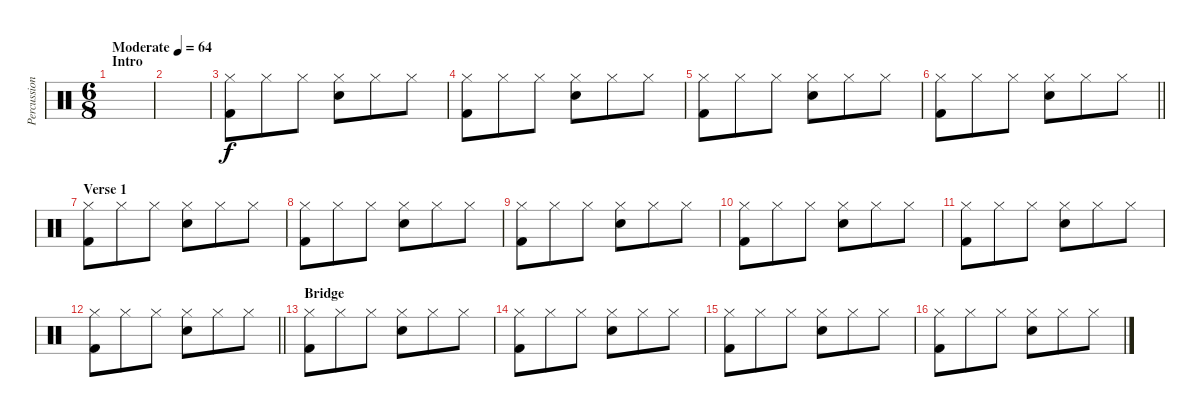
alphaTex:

\track ("Percussion" "Percussion") {instrument percussion}
\staff {score}
\articulation defaults
\ts (6 8)
\section ("" "Intro")
\tempo (64 "Moderate")
\clef neutral
\ks c
|
|
("Hi-Hat (closed)" "Kick (hit) 2").8 "Hi-Hat (closed)".8 "Hi-Hat (closed)".8 ("Hi-Hat (closed)" "Electric Snare (hit)").8 "Hi-Hat (closed)".8 "Hi-Hat (closed)".8 |
("Hi-Hat (closed)" "Kick (hit) 2").8 "Hi-Hat (closed)".8 "Hi-Hat (closed)".8 ("Hi-Hat (closed)" "Electric Snare (hit)").8 "Hi-Hat (closed)".8 "Hi-Hat (closed)".8 |
("Hi-Hat (closed)" "Kick (hit) 2").8 "Hi-Hat (closed)".8 "Hi-Hat (closed)".8 ("Hi-Hat (closed)" "Electric Snare (hit)").8 "Hi-Hat (closed)".8 "Hi-Hat (closed)".8 |
\barLineRight lightlight
("Hi-Hat (closed)" "Kick (hit) 2").8 "Hi-Hat (closed)".8 "Hi-Hat (closed)".8 ("Hi-Hat (closed)" "Electric Snare (hit)").8 "Hi-Hat (closed)".8 "Hi-Hat (closed)".8 |
\section ("" "Verse 1")
("Hi-Hat (closed)" "Kick (hit) 2").8 "Hi-Hat (closed)".8 "Hi-Hat (closed)".8 ("Hi-Hat (closed)" "Electric Snare (hit)").8 "Hi-Hat (closed)".8 "Hi-Hat (closed)".8 |
("Hi-Hat (closed)" "Kick (hit) 2").8 "Hi-Hat (closed)".8 "Hi-Hat (closed)".8 ("Hi-Hat (closed)" "Electric Snare (hit)").8 "Hi-Hat (closed)".8 "Hi-Hat (closed)".8 |
("Hi-Hat (closed)" "Kick (hit) 2").8 "Hi-Hat (closed)".8 "Hi-Hat (closed)".8 ("Hi-Hat (closed)" "Electric Snare (hit)").8 "Hi-Hat (closed)".8 "Hi-Hat (closed)".8 |
("Hi-Hat (closed)" "Kick (hit) 2").8 "Hi-Hat (closed)".8 "Hi-Hat (closed)".8 ("Hi-Hat (closed)" "Electric Snare (hit)").8 "Hi-Hat (closed)".8 "Hi-Hat (closed)".8 |
("Hi-Hat (closed)" "Kick (hit) 2").8 "Hi-Hat (closed)".8 "Hi-Hat (closed)".8 ("Hi-Hat (closed)" "Electric Snare (hit)").8 "Hi-Hat (closed)".8 "Hi-Hat (closed)".8 |
\barLineRight lightlight
("Hi-Hat (closed)" "Kick (hit) 2").8 "Hi-Hat (closed)".8 "Hi-Hat (closed)".8 ("Hi-Hat (closed)" "Electric Snare (hit)").8 "Hi-Hat (closed)".8 "Hi-Hat (closed)".8 |
\section ("" "Bridge")
("Hi-Hat (closed)" "Kick (hit) 2").8 "Hi-Hat (closed)".8 "Hi-Hat (closed)".8 ("Hi-Hat (closed)" "Electric Snare (hit)").8 "Hi-Hat (closed)".8 "Hi-Hat (closed)".8 |
("Hi-Hat (closed)" "Kick (hit) 2").8 "Hi-Hat (closed)".8 "Hi-Hat (closed)".8 ("Hi-Hat (closed)" "Electric Snare (hit)").8 "Hi-Hat (closed)".8 "Hi-Hat (closed)".8 |
("Hi-Hat (closed)" "Kick (hit) 2").8 "Hi-Hat (closed)".8 "Hi-Hat (closed)".8 ("Hi-Hat (closed)" "Electric Snare (hit)").8 "Hi-Hat (closed)".8 "Hi-Hat (closed)".8 |
("Hi-Hat (closed)" "Kick (hit) 2").8 "Hi-Hat (closed)".8 "Hi-Hat (closed)".8 ("Hi-Hat (closed)" "Electric Snare (hit)").8 "Hi-Hat (closed)".8 "Hi-Hat (closed)".8
